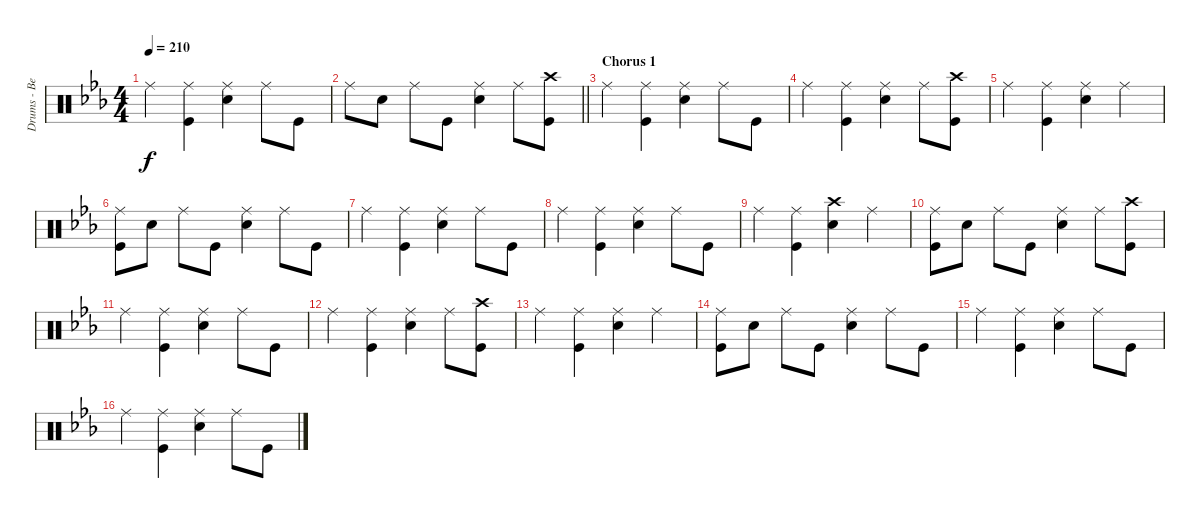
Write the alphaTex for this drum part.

\track ("Drums - Ben Johnston" "Drums - Be") {instrument percussion}
\staff {score}
\articulation defaults
\ts (4 4)
\tempo 210
\clef neutral
\ks cminor "Ride (middle)".4{dy f}
("Ride (middle)" "Kick (hit)").4 ("Ride (middle)" "Snare (hit) 2").4 "Ride (middle)".8 "Kick (hit)".8 |
\barLineRight lightlight "Ride (middle)".8 "Snare (hit) 2".8 "Ride (middle)".8 "Kick (hit)".8
("Ride (middle)" "Snare (hit) 2").4 "Ride (middle)".8 ("Crash high (hit)" "Kick (hit)").8 |
\section ("" "Chorus 1")
"Ride (middle)".4 ("Ride (middle)" "Kick (hit)").4 ("Ride (middle)" "Snare (hit) 2").4 "Ride (middle)".8 "Kick (hit)".8 |
"Ride (middle)".4 ("Ride (middle)" "Kick (hit)").4 ("Ride (middle)" "Snare (hit) 2").4 "Ride (middle)".8 ("Crash high (hit)" "Kick (hit)").8 |
"Ride (middle)".4 ("Ride (middle)" "Kick (hit)").4 ("Ride (middle)" "Snare (hit) 2").4 "Ride (middle)".4 |
("Ride (middle)" "Kick (hit)").8 "Snare (hit) 2".8 "Ride (middle)".8 "Kick (hit)".8 ("Ride (middle)" "Snare (hit) 2").4 "Ride (middle)".8 "Kick (hit)".8 |
"Ride (middle)".4 ("Ride (middle)" "Kick (hit)").4 ("Ride (middle)" "Snare (hit) 2").4 "Ride (middle)".8 "Kick (hit)".8 |
"Ride (middle)".4 ("Ride (middle)" "Kick (hit)").4 ("Ride (middle)" "Snare (hit) 2").4 "Ride (middle)".8 "Kick (hit)".8 |
"Ride (middle)".4 ("Ride (middle)" "Kick (hit)").4 ("Crash high (hit)" "Snare (hit) 2").4 "Ride (middle)".4 |
("Ride (middle)" "Kick (hit)").8 "Snare (hit) 2".8 "Ride (middle)".8 "Kick (hit)".8 ("Ride (middle)" "Snare (hit) 2").4 "Ride (middle)".8 ("Crash high (hit)" "Kick (hit)").8 |
"Ride (middle)".4 ("Ride (middle)" "Kick (hit)").4 ("Ride (middle)" "Snare (hit) 2").4 "Ride (middle)".8 "Kick (hit)".8 |
"Ride (middle)".4 ("Ride (middle)" "Kick (hit)").4 ("Ride (middle)" "Snare (hit) 2").4 "Ride (middle)".8 ("Crash high (hit)" "Kick (hit)").8 |
"Ride (middle)".4 ("Ride (middle)" "Kick (hit)").4 ("Ride (middle)" "Snare (hit) 2").4 "Ride (middle)".4 |
("Ride (middle)" "Kick (hit)").8 "Snare (hit) 2".8 "Ride (middle)".8 "Kick (hit)".8 ("Ride (middle)" "Snare (hit) 2").4 "Ride (middle)".8 "Kick (hit)".8 |
"Ride (middle)".4 ("Ride (middle)" "Kick (hit)").4 ("Ride (middle)" "Snare (hit) 2").4 "Ride (middle)".8 "Kick (hit)".8 |
"Ride (middle)".4 ("Ride (middle)" "Kick (hit)").4 ("Ride (middle)" "Snare (hit) 2").4 "Ride (middle)".8 "Kick (hit)".8
